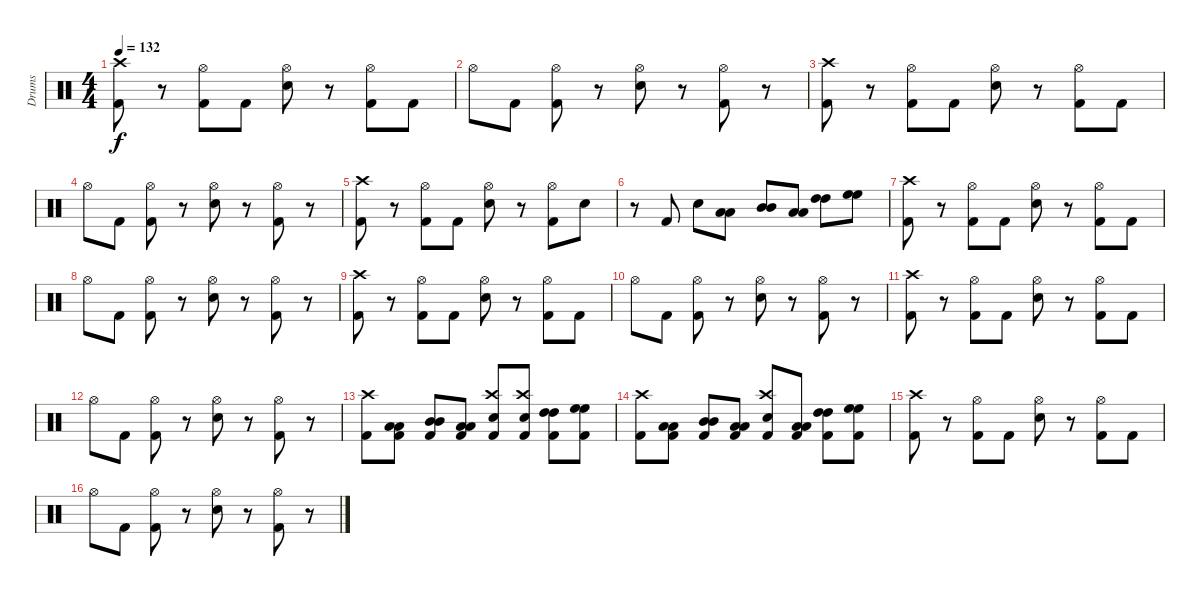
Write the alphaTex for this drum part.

\track ("Drums" "Drums") {instrument percussion}
\staff {score}
\articulation defaults
\ts (4 4)
\tempo 132
\clef neutral
\ks c
("Kick (hit) 2" "Crash high (hit)").8{dy f} r.8 ("Kick (hit) 2" "Hi-Hat (open)").8 "Kick (hit) 2".8 ("Snare (hit) 2" "Hi-Hat (open)").8 r.8 ("Kick (hit) 2" "Hi-Hat (open)").8 "Kick (hit) 2".8 |
"Hi-Hat (open)".8 "Kick (hit) 2".8 ("Kick (hit) 2" "Hi-Hat (open)").8 r.8 ("Snare (hit) 2" "Hi-Hat (open)").8 r.8 ("Kick (hit) 2" "Hi-Hat (open)").8 r.8 |
("Kick (hit) 2" "Crash high (hit)").8 r.8 ("Kick (hit) 2" "Hi-Hat (open)").8 "Kick (hit) 2".8 ("Snare (hit) 2" "Hi-Hat (open)").8 r.8 ("Kick (hit) 2" "Hi-Hat (open)").8 "Kick (hit) 2".8 |
"Hi-Hat (open)".8 "Kick (hit) 2".8 ("Kick (hit) 2" "Hi-Hat (open)").8 r.8 ("Snare (hit) 2" "Hi-Hat (open)").8 r.8 ("Kick (hit) 2" "Hi-Hat (open)").8 r.8 |
("Kick (hit) 2" "Crash high (hit)").8 r.8 ("Kick (hit) 2" "Hi-Hat (open)").8 "Kick (hit) 2".8 ("Snare (hit) 2" "Hi-Hat (open)").8 r.8 ("Kick (hit) 2" "Hi-Hat (open)").8 "Snare (hit) 2".8 |
r.8 "Kick (hit) 2".8 "Snare (hit) 2".8 ("Low Tom (hit)" "Low Tom (hit)").8 ("Mid Tom (hit)" "Mid Tom (hit)").8 ("Low Tom (hit)" "Low Tom (hit)").8 ("High Tom (hit)" "High Tom (hit)").8 ("High Floor Tom (hit)" "High Floor Tom (hit)").8 |
("Kick (hit) 2" "Crash high (hit)").8 r.8 ("Kick (hit) 2" "Hi-Hat (open)").8 "Kick (hit) 2".8 ("Snare (hit) 2" "Hi-Hat (open)").8 r.8 ("Kick (hit) 2" "Hi-Hat (open)").8 "Kick (hit) 2".8 |
"Hi-Hat (open)".8 "Kick (hit) 2".8 ("Kick (hit) 2" "Hi-Hat (open)").8 r.8 ("Snare (hit) 2" "Hi-Hat (open)").8 r.8 ("Kick (hit) 2" "Hi-Hat (open)").8 r.8 |
("Kick (hit) 2" "Crash high (hit)").8 r.8 ("Kick (hit) 2" "Hi-Hat (open)").8 "Kick (hit) 2".8 ("Snare (hit) 2" "Hi-Hat (open)").8 r.8 ("Kick (hit) 2" "Hi-Hat (open)").8 "Kick (hit) 2".8 |
"Hi-Hat (open)".8 "Kick (hit) 2".8 ("Kick (hit) 2" "Hi-Hat (open)").8 r.8 ("Snare (hit) 2" "Hi-Hat (open)").8 r.8 ("Kick (hit) 2" "Hi-Hat (open)").8 r.8 |
("Kick (hit) 2" "Crash high (hit)").8 r.8 ("Kick (hit) 2" "Hi-Hat (open)").8 "Kick (hit) 2".8 ("Snare (hit) 2" "Hi-Hat (open)").8 r.8 ("Kick (hit) 2" "Hi-Hat (open)").8 "Kick (hit) 2".8 |
"Hi-Hat (open)".8 "Kick (hit) 2".8 ("Kick (hit) 2" "Hi-Hat (open)").8 r.8 ("Snare (hit) 2" "Hi-Hat (open)").8 r.8 ("Kick (hit) 2" "Hi-Hat (open)").8 r.8 |
("Kick (hit) 2" "Crash high (hit)").8{volume 12} ("Kick (hit) 2" "Low Tom (hit)" "Low Tom (hit)").8 ("Kick (hit) 2" "Mid Tom (hit)" "Mid Tom (hit)").8 ("Kick (hit) 2" "Low Tom (hit)" "Low Tom (hit)").8 ("Kick (hit) 2" "Snare (hit) 2" "Crash high (hit)").8 ("Kick (hit) 2" "Snare (hit) 2" "Crash high (hit)").8 ("Kick (hit) 2" "High Tom (hit)" "High Tom (hit)").8 ("Kick (hit) 2" "High Floor Tom (hit)" "High Floor Tom (hit)").8 |
("Kick (hit) 2" "Crash high (hit)").8 ("Kick (hit) 2" "Low Tom (hit)" "Low Tom (hit)").8 ("Kick (hit) 2" "Mid Tom (hit)" "Mid Tom (hit)").8 ("Kick (hit) 2" "Low Tom (hit)" "Low Tom (hit)").8 ("Kick (hit) 2" "Snare (hit) 2" "Crash high (hit)").8 ("Kick (hit) 2" "Low Tom (hit)" "Low Tom (hit)").8 ("Kick (hit) 2" "High Tom (hit)" "High Tom (hit)").8 ("Kick (hit) 2" "High Floor Tom (hit)" "High Floor Tom (hit)").8 |
("Kick (hit) 2" "Crash high (hit)").8{volume 10} r.8 ("Kick (hit) 2" "Hi-Hat (open)").8 "Kick (hit) 2".8 ("Snare (hit) 2" "Hi-Hat (open)").8 r.8 ("Kick (hit) 2" "Hi-Hat (open)").8 "Kick (hit) 2".8 |
"Hi-Hat (open)".8 "Kick (hit) 2".8 ("Kick (hit) 2" "Hi-Hat (open)").8 r.8 ("Snare (hit) 2" "Hi-Hat (open)").8 r.8 ("Kick (hit) 2" "Hi-Hat (open)").8 r.8
